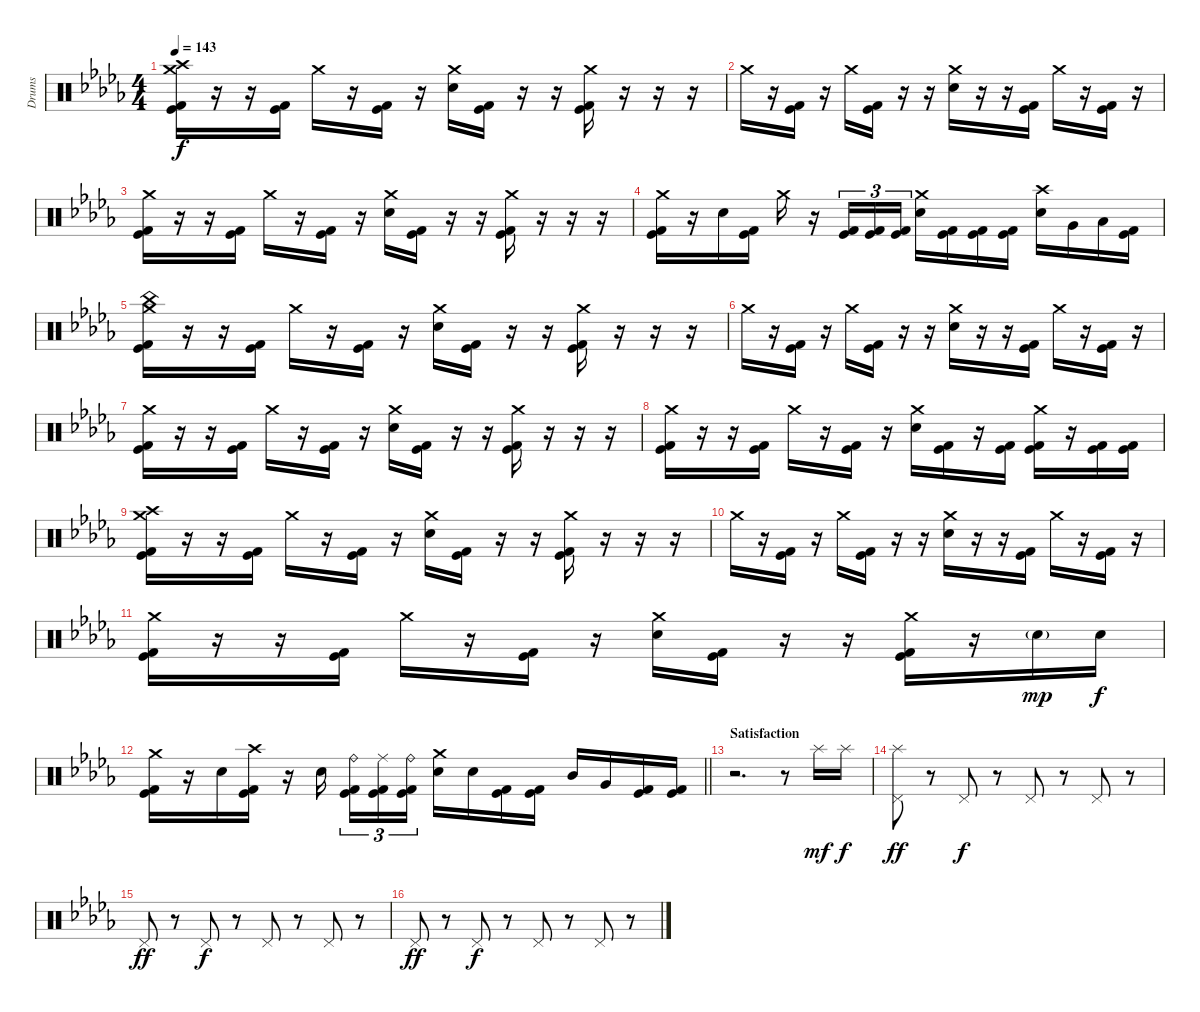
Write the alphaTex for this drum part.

\track ("Drums" "Drums") {instrument percussion}
\staff {score}
\articulation defaults
\ts (4 4)
\tempo 143
\clef neutral
\ks db
("Crash medium (hit)" "Crash high (hit)" "Kick (hit)" "Kick (hit) 2").16{dy f} r.16 r.16 ("Kick (hit)" "Kick (hit) 2").16 "Crash medium (hit)".16 r.16 ("Kick (hit)" "Kick (hit) 2").16 r.16 ("Crash medium (hit)" "Electric Snare (hit)").16 ("Kick (hit)" "Kick (hit) 2").16 r.16 r.16 ("Crash medium (hit)" "Kick (hit)" "Kick (hit) 2").16 r.16 r.16 r.16 |
"Crash medium (hit)".16 r.16 ("Kick (hit)" "Kick (hit) 2").16 r.16 "Crash medium (hit)".16 ("Kick (hit)" "Kick (hit) 2").16 r.16 r.16 ("Crash medium (hit)" "Electric Snare (hit)").16 r.16 r.16 ("Kick (hit)" "Kick (hit) 2").16 "Crash medium (hit)".16 r.16 ("Kick (hit)" "Kick (hit) 2").16 r.16 |
("Crash medium (hit)" "Kick (hit)" "Kick (hit) 2").16 r.16 r.16 ("Kick (hit)" "Kick (hit) 2").16 "Crash medium (hit)".16 r.16 ("Kick (hit)" "Kick (hit) 2").16 r.16 ("Crash medium (hit)" "Electric Snare (hit)").16 ("Kick (hit)" "Kick (hit) 2").16 r.16 r.16 ("Crash medium (hit)" "Kick (hit)" "Kick (hit) 2").16 r.16 r.16 r.16 |
("Crash medium (hit)" "Kick (hit)" "Kick (hit) 2").16 r.16 "Electric Snare (hit)".16 ("Kick (hit)" "Kick (hit) 2").16 "Crash medium (hit)".16 r.16 ("Kick (hit)" "Kick (hit) 2").16{tu (3 2)} ("Kick (hit)" "Kick (hit) 2").16{tu (3 2)} ("Kick (hit)" "Kick (hit) 2").16{tu (3 2)} ("Crash medium (hit)" "Electric Snare (hit)").16 ("Kick (hit)" "Kick (hit) 2").16 ("Kick (hit)" "Kick (hit) 2").16 ("Kick (hit)" "Kick (hit) 2").16 ("Crash high (hit)" "Electric Snare (hit)").16 "Very Low Tom (hit)".16 "Low Floor Tom (hit)".16 ("Kick (hit)" "Kick (hit) 2").16 |
("Crash medium (hit)" "China (hit)" "Kick (hit)" "Kick (hit) 2").16 r.16 r.16 ("Kick (hit)" "Kick (hit) 2").16 "Crash medium (hit)".16 r.16 ("Kick (hit)" "Kick (hit) 2").16 r.16 ("Crash medium (hit)" "Electric Snare (hit)").16 ("Kick (hit)" "Kick (hit) 2").16 r.16 r.16 ("Crash medium (hit)" "Kick (hit)" "Kick (hit) 2").16 r.16 r.16 r.16 |
"Crash medium (hit)".16 r.16 ("Kick (hit)" "Kick (hit) 2").16 r.16 "Crash medium (hit)".16 ("Kick (hit)" "Kick (hit) 2").16 r.16 r.16 ("Crash medium (hit)" "Electric Snare (hit)").16 r.16 r.16 ("Kick (hit)" "Kick (hit) 2").16 "Crash medium (hit)".16 r.16 ("Kick (hit)" "Kick (hit) 2").16 r.16 |
("Crash medium (hit)" "Kick (hit)" "Kick (hit) 2").16 r.16 r.16 ("Kick (hit)" "Kick (hit) 2").16 "Crash medium (hit)".16 r.16 ("Kick (hit)" "Kick (hit) 2").16 r.16 ("Crash medium (hit)" "Electric Snare (hit)").16 ("Kick (hit)" "Kick (hit) 2").16 r.16 r.16 ("Crash medium (hit)" "Kick (hit)" "Kick (hit) 2").16 r.16 r.16 r.16 |
("Crash medium (hit)" "Kick (hit)" "Kick (hit) 2").16 r.16 r.16 ("Kick (hit)" "Kick (hit) 2").16 "Crash medium (hit)".16 r.16 ("Kick (hit)" "Kick (hit) 2").16 r.16 ("Crash medium (hit)" "Electric Snare (hit)").16 ("Kick (hit)" "Kick (hit) 2").16 r.16 ("Kick (hit)" "Kick (hit) 2").16 ("Crash medium (hit)" "Kick (hit)" "Kick (hit) 2").16 r.16 ("Kick (hit)" "Kick (hit) 2").16 ("Kick (hit)" "Kick (hit) 2").16 |
("Crash medium (hit)" "Crash high (hit)" "Kick (hit)" "Kick (hit) 2").16 r.16 r.16 ("Kick (hit)" "Kick (hit) 2").16 "Crash medium (hit)".16 r.16 ("Kick (hit)" "Kick (hit) 2").16 r.16 ("Crash medium (hit)" "Electric Snare (hit)").16 ("Kick (hit)" "Kick (hit) 2").16 r.16 r.16 ("Crash medium (hit)" "Kick (hit)" "Kick (hit) 2").16 r.16 r.16 r.16 |
"Crash medium (hit)".16 r.16 ("Kick (hit)" "Kick (hit) 2").16 r.16 "Crash medium (hit)".16 ("Kick (hit)" "Kick (hit) 2").16 r.16 r.16 ("Crash medium (hit)" "Electric Snare (hit)").16 r.16 r.16 ("Kick (hit)" "Kick (hit) 2").16 "Crash medium (hit)".16 r.16 ("Kick (hit)" "Kick (hit) 2").16 r.16 |
("Crash medium (hit)" "Kick (hit)" "Kick (hit) 2").16 r.16 r.16 ("Kick (hit)" "Kick (hit) 2").16 "Crash medium (hit)".16 r.16 ("Kick (hit)" "Kick (hit) 2").16 r.16 ("Crash medium (hit)" "Electric Snare (hit)").16 ("Kick (hit)" "Kick (hit) 2").16 r.16 r.16 ("Crash medium (hit)" "Kick (hit)" "Kick (hit) 2").16 r.16 "Electric Snare (hit)"{g}.16{dy mp} "Electric Snare (hit)".16{dy f} |
\barLineRight lightlight
("Crash medium (hit)" "Kick (hit)" "Kick (hit) 2").16 r.16 "Electric Snare (hit)".16 ("Crash high (hit)" "Kick (hit)" "Kick (hit) 2").16 r.16 "Electric Snare (hit)".16{beam splitsecondary} ("Ride (bell)" "Kick (hit)" "Kick (hit) 2").16{tu (3 2)} ("Ride (middle)" "Kick (hit)" "Kick (hit) 2").16{tu (3 2)} ("Ride (bell)" "Kick (hit)" "Kick (hit) 2").16{tu (3 2)} ("Crash medium (hit)" "Electric Snare (hit)").16 "Electric Snare (hit)".16 ("Kick (hit)" "Kick (hit) 2").16 ("Kick (hit)" "Kick (hit) 2").16 "Mid Tom (hit)".16 "Very Low Tom (hit)".16 ("Kick (hit)" "Kick (hit) 2").16 ("Kick (hit)" "Kick (hit) 2").16 |
\section ("" "Satisfaction")
r.2{d} r.8 "Splash (hit)".16{dy mf} "Splash (hit)".16{dy f} |
("Splash (hit)" "Pedal Hi-Hat (hit)").8{dy ff} r.8 "Pedal Hi-Hat (hit)".8{dy f} r.8 "Pedal Hi-Hat (hit)".8 r.8 "Pedal Hi-Hat (hit)".8 r.8 |
"Pedal Hi-Hat (hit)".8{dy ff} r.8 "Pedal Hi-Hat (hit)".8{dy f} r.8 "Pedal Hi-Hat (hit)".8 r.8 "Pedal Hi-Hat (hit)".8 r.8 |
"Pedal Hi-Hat (hit)".8{dy ff} r.8 "Pedal Hi-Hat (hit)".8{dy f} r.8 "Pedal Hi-Hat (hit)".8 r.8 "Pedal Hi-Hat (hit)".8 r.8
